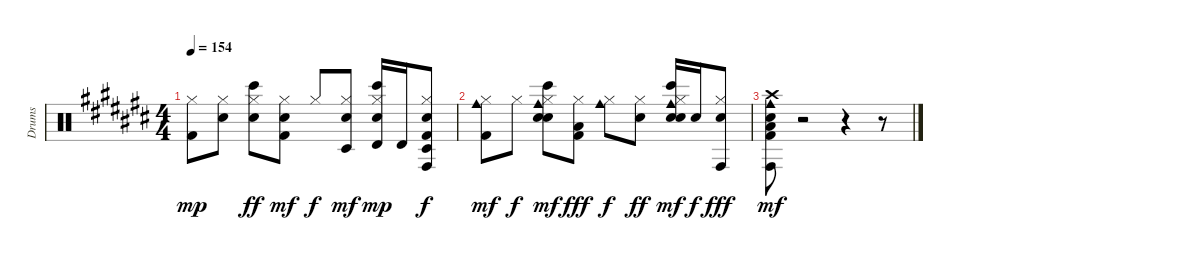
\track ("Drums" "Drums") {instrument percussion}
\staff {score}
\articulation defaults
\ts (4 4)
\tempo 154
\clef neutral
\ks a#minor
("Kick (hit) 2" "Hi-Hat (closed)").8{dy mp} ("Electric Snare (hit)" "Hi-Hat (closed)").8 ("Electric Snare (hit)" "Hi-Hat (closed)" "Bongo High (hit)").8{dy ff} ("Kick (hit) 2" "Electric Snare (hit)" "Hi-Hat (closed)").8{dy mf} "Hi-Hat (closed)".8{dy f} ("Electric Snare (hit)" "Hi-Hat (closed)" "Timbale low (hit)").8{dy mf} ("Electric Snare (hit)" "Hi-Hat (closed)" "Bongo High (hit)" "Timbale high (hit)").16{dy mp} "Timbale high (hit)".16 ("Kick (hit) 2" "Electric Snare (hit)" "Hi-Hat (closed)" "Conga high (hit)" "Timbale low (hit)").8{dy f} |
("Kick (hit) 2" "Hi-Hat (closed)" "Cowbell medium (hit)").8{dy mf} "Hi-Hat (closed)".8{dy f} ("Electric Snare (hit)" "Hi-Hat (closed)" "Cowbell medium (hit)" "Bongo High (hit)" "Hand Clap (hit)").8{dy mf} ("Kick (hit) 2" "Low Floor Tom (hit)" "Hi-Hat (closed)").8{dy fff} ("Hi-Hat (closed)" "Cowbell medium (hit)").8{dy f} ("Electric Snare (hit)" "Hi-Hat (closed)").8{dy ff} ("Electric Snare (hit)" "Hi-Hat (closed)" "Cowbell medium (hit)" "Bongo High (hit)" "Hand Clap (hit)").16{dy mf} "Electric Snare (hit)".16{dy f} ("Electric Snare (hit)" "Hi-Hat (closed)" "Conga high (hit)").8{dy fff} |
("Kick (hit) 2" "Electric Snare (hit)" "Low Floor Tom (hit)" "Crash high (hit)" "Cowbell medium (hit)" "Conga high (hit)").8{dy mf} r.2 r.4 r.8
